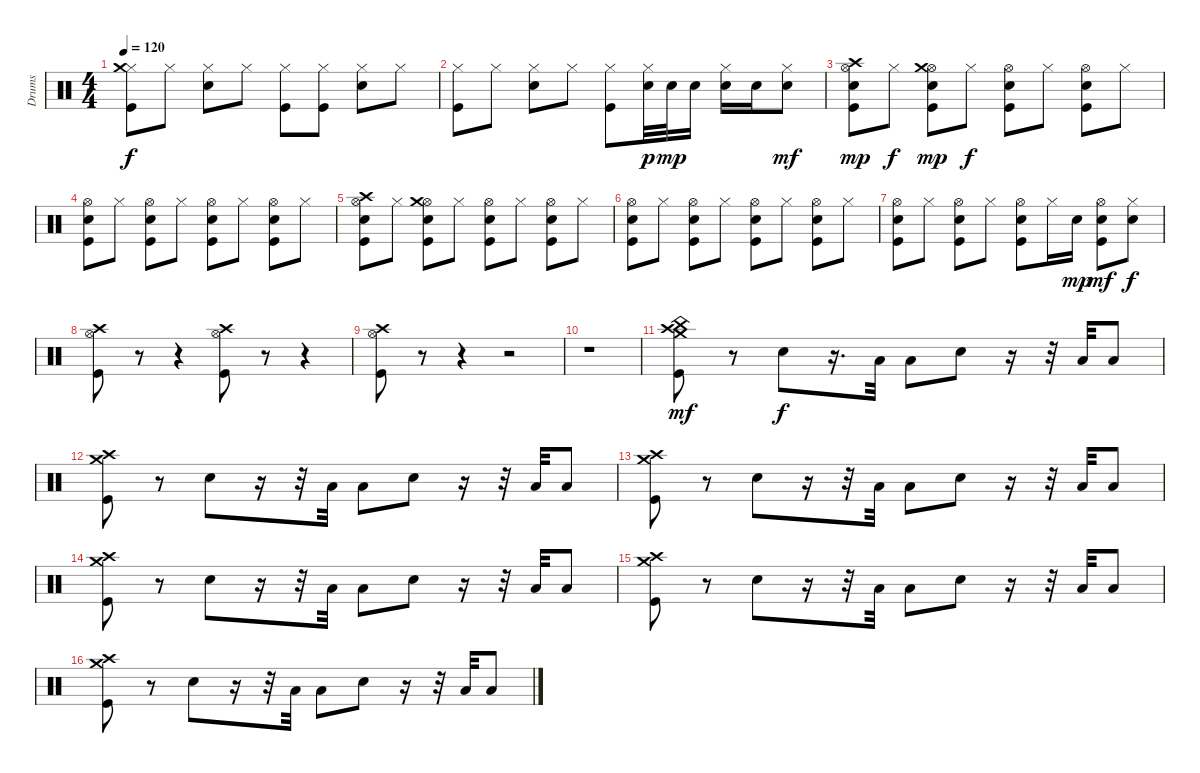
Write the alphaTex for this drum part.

\track ("Drums" "Drums") {instrument percussion}
\staff {score}
\articulation defaults
\ts (4 4)
\tempo 120
\clef neutral
\ks c
("Hi-Hat (closed)" "Crash medium (hit)" "Kick (hit)").8{dy f} "Hi-Hat (closed)".8 ("Hi-Hat (closed)" "Snare (hit) 2").8 "Hi-Hat (closed)".8 ("Hi-Hat (closed)" "Kick (hit)").8 ("Hi-Hat (closed)" "Kick (hit)").8 ("Hi-Hat (closed)" "Snare (hit) 2").8 "Hi-Hat (closed)".8 |
("Hi-Hat (closed)" "Kick (hit)").8 "Hi-Hat (closed)".8 ("Hi-Hat (closed)" "Snare (hit) 2").8 "Hi-Hat (closed)".8 ("Hi-Hat (closed)" "Kick (hit)").8 ("Hi-Hat (closed)" "Snare (hit) 2").32{dy p} "Snare (hit) 2".32{dy mp} "Snare (hit) 2".16 ("Hi-Hat (closed)" "Snare (hit) 2").16 "Snare (hit) 2".16 ("Hi-Hat (closed)" "Snare (hit) 2").8{dy mf} |
("Hi-Hat (open)" "Crash high (hit)" "Snare (hit) 2" "Kick (hit)").8{dy mp} "Hi-Hat (closed)".8{dy f} ("Hi-Hat (open)" "Crash medium (hit)" "Snare (hit) 2" "Kick (hit)").8{dy mp} "Hi-Hat (closed)".8{dy f} ("Hi-Hat (open)" "Snare (hit) 2" "Kick (hit)").8 "Hi-Hat (closed)".8 ("Hi-Hat (open)" "Snare (hit) 2" "Kick (hit)").8 "Hi-Hat (closed)".8 |
("Hi-Hat (open)" "Snare (hit) 2" "Kick (hit)").8 "Hi-Hat (closed)".8 ("Hi-Hat (open)" "Snare (hit) 2" "Kick (hit)").8 "Hi-Hat (closed)".8 ("Hi-Hat (open)" "Snare (hit) 2" "Kick (hit)").8 "Hi-Hat (closed)".8 ("Hi-Hat (open)" "Snare (hit) 2" "Kick (hit)").8 "Hi-Hat (closed)".8 |
("Hi-Hat (open)" "Crash high (hit)" "Snare (hit) 2" "Kick (hit)").8 "Hi-Hat (closed)".8 ("Hi-Hat (open)" "Crash medium (hit)" "Snare (hit) 2" "Kick (hit)").8 "Hi-Hat (closed)".8 ("Hi-Hat (open)" "Snare (hit) 2" "Kick (hit)").8 "Hi-Hat (closed)".8 ("Hi-Hat (open)" "Snare (hit) 2" "Kick (hit)").8 "Hi-Hat (closed)".8 |
("Hi-Hat (open)" "Snare (hit) 2" "Kick (hit)").8 "Hi-Hat (closed)".8 ("Hi-Hat (open)" "Snare (hit) 2" "Kick (hit)").8 "Hi-Hat (closed)".8 ("Hi-Hat (open)" "Snare (hit) 2" "Kick (hit)").8 "Hi-Hat (closed)".8 ("Hi-Hat (open)" "Snare (hit) 2" "Kick (hit)").8 "Hi-Hat (closed)".8 |
("Hi-Hat (open)" "Snare (hit) 2" "Kick (hit)").8 "Hi-Hat (closed)".8 ("Hi-Hat (open)" "Snare (hit) 2" "Kick (hit)").8 "Hi-Hat (closed)".8 ("Hi-Hat (open)" "Snare (hit) 2" "Kick (hit)").8 "Hi-Hat (closed)".16 "Snare (hit) 2".16{dy mp} ("Hi-Hat (open)" "Snare (hit) 2" "Kick (hit)").8{dy mf} ("Hi-Hat (closed)" "Snare (hit) 2").8{dy f} |
("Hi-Hat (open)" "Crash high (hit)" "Kick (hit)").8 r.8 r.4 ("Hi-Hat (open)" "Crash high (hit)" "Kick (hit)").8 r.8 r.4 |
("Crash high (hit)" "Hi-Hat (open)" "Kick (hit)").8 r.8 r.4 r.2 |
r.1 |
("Crash high (hit)" "China (hit)" "Crash medium (hit)" "Kick (hit)").8{dy mf} r.8 "Snare (hit) 2".8{dy f} r.16{d} "Low Floor Tom (hit)".32 "Low Floor Tom (hit)".8 "Snare (hit) 2".8 r.16 r.32 "Low Floor Tom (hit)".32 "Low Floor Tom (hit)".8 |
("Crash high (hit)" "Crash medium (hit)" "Kick (hit)").8 r.8 "Snare (hit) 2".8 r.16 r.32 "Low Floor Tom (hit)".32 "Low Floor Tom (hit)".8 "Snare (hit) 2".8 r.16 r.32 "Low Floor Tom (hit)".32 "Low Floor Tom (hit)".8 |
("Crash high (hit)" "Crash medium (hit)" "Kick (hit)").8 r.8 "Snare (hit) 2".8 r.16 r.32 "Low Floor Tom (hit)".32 "Low Floor Tom (hit)".8 "Snare (hit) 2".8 r.16 r.32 "Low Floor Tom (hit)".32 "Low Floor Tom (hit)".8 |
("Crash high (hit)" "Crash medium (hit)" "Kick (hit)").8 r.8 "Snare (hit) 2".8 r.16 r.32 "Low Floor Tom (hit)".32 "Low Floor Tom (hit)".8 "Snare (hit) 2".8 r.16 r.32 "Low Floor Tom (hit)".32 "Low Floor Tom (hit)".8 |
("Crash high (hit)" "Crash medium (hit)" "Kick (hit)").8 r.8 "Snare (hit) 2".8 r.16 r.32 "Low Floor Tom (hit)".32 "Low Floor Tom (hit)".8 "Snare (hit) 2".8 r.16 r.32 "Low Floor Tom (hit)".32 "Low Floor Tom (hit)".8 |
("Crash high (hit)" "Crash medium (hit)" "Kick (hit)").8 r.8 "Snare (hit) 2".8 r.16 r.32 "Low Floor Tom (hit)".32 "Low Floor Tom (hit)".8 "Snare (hit) 2".8 r.16 r.32 "Low Floor Tom (hit)".32 "Low Floor Tom (hit)".8
